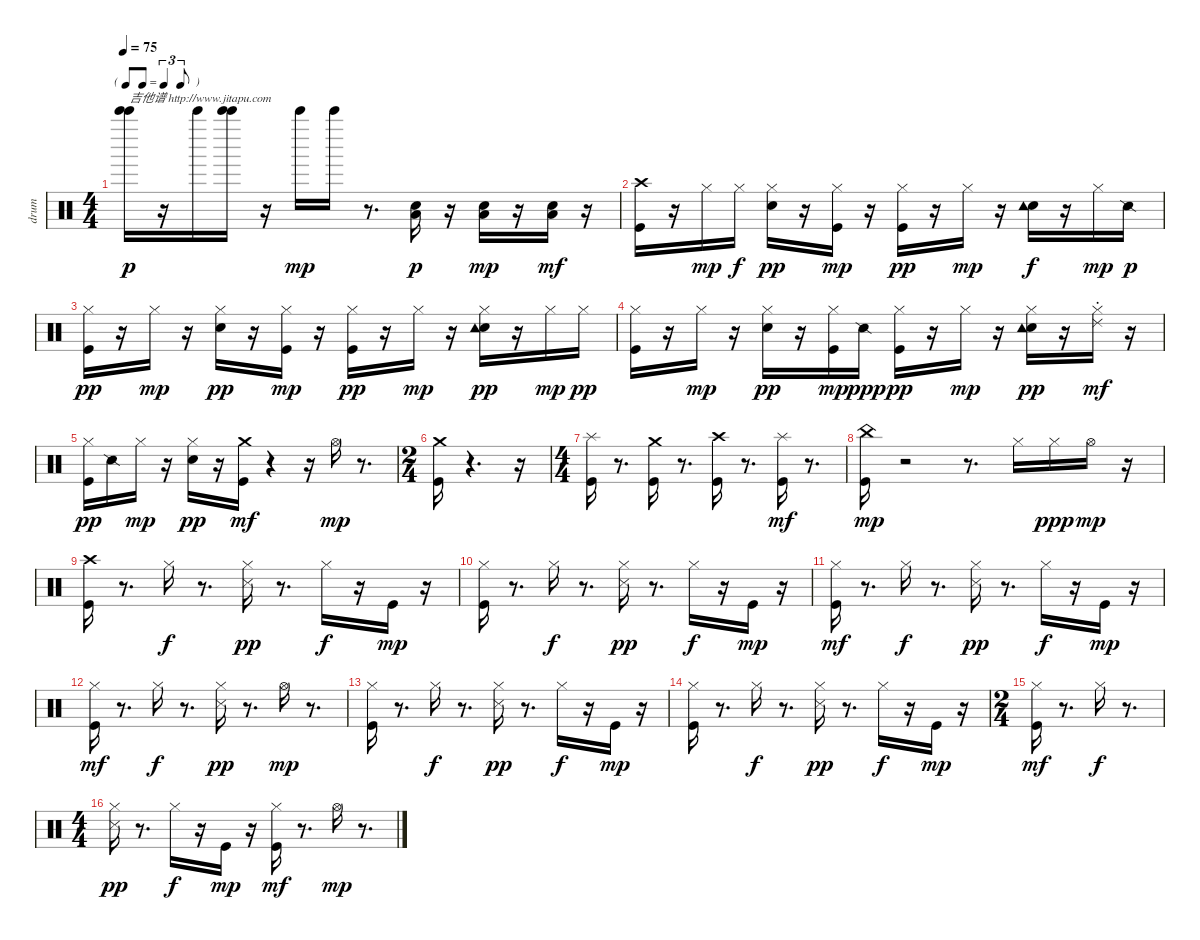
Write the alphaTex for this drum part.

\track ("drum" "drum") {instrument percussion}
\staff {score}
\articulation defaults
\ts (4 4)
\tf triplet8th
\tempo 75
\clef neutral
\ks c
("Bell Tree (hit)" "Bell Tree (hit)").16{txt "吉他谱 http://www.jitapu.com" dy p} r.16 "Bell Tree (hit)".16{balance 12} ("Bell Tree (hit)" "Bell Tree (hit)").16{balance 11} r.16 "Bell Tree (hit)".16{dy mp balance 7} "Bell Tree (hit)".16{balance 5} r.8{d} ("Snare (hit) 2" "Low Floor Tom (hit)").16{dy p balance 8} r.16 ("Snare (hit) 2" "Low Floor Tom (hit)").16{dy mp} r.16 ("Snare (hit) 2" "Low Floor Tom (hit)").16{dy mf} r.16 |
("Crash high (hit)" "Kick (hit)").16 r.16 "Hi-Hat (closed)".16{dy mp} "Hi-Hat (closed)".16{dy f} ("Hi-Hat (closed)" "Snare (hit) 2").16{dy pp} r.16 ("Hi-Hat (closed)" "Kick (hit)").16{dy mp} r.16 ("Hi-Hat (closed)" "Kick (hit)").16{dy pp} r.16 "Hi-Hat (closed)".16{dy mp} r.16 ("Snare (hit) 2" "Tambourine (hit)").16{dy f} r.16 "Hi-Hat (closed)".16{dy mp} "Snare (side stick) 2".16{dy p} |
("Hi-Hat (closed)" "Kick (hit)").16{dy pp} r.16 "Hi-Hat (closed)".16{dy mp} r.16 ("Hi-Hat (closed)" "Snare (hit) 2").16{dy pp} r.16 ("Hi-Hat (closed)" "Kick (hit)").16{dy mp} r.16 ("Hi-Hat (closed)" "Kick (hit)").16{dy pp} r.16 "Hi-Hat (closed)".16{dy mp} r.16 ("Hi-Hat (closed)" "Snare (hit) 2" "Tambourine (hit)").16{dy pp} r.16 "Hi-Hat (closed)".16{dy mp} "Hi-Hat (closed)".16{dy pp} |
("Hi-Hat (closed)" "Kick (hit)").16 r.16 "Hi-Hat (closed)".16{dy mp} r.16 ("Hi-Hat (closed)" "Snare (hit) 2").16{dy pp} r.16 ("Hi-Hat (closed)" "Kick (hit)").16{dy mp} "Snare (side stick) 2".16{dy ppp} ("Hi-Hat (closed)" "Kick (hit)").16{dy pp} r.16 "Hi-Hat (closed)".16{dy mp} r.16 ("Hi-Hat (closed)" "Snare (hit) 2" "Tambourine (hit)").16{dy pp} r.16 ("Hi-Hat (closed)" "Ride (choke) 2").16{dy mf} r.16 |
("Hi-Hat (closed)" "Kick (hit)").16{dy pp} "Snare (side stick) 2".16 "Hi-Hat (closed)".16{dy mp} r.16 ("Hi-Hat (closed)" "Snare (hit) 2").16{dy pp} r.16 ("Crash medium (hit)" "Kick (hit)").16{dy mf} r.4 r.16 "Hi-Hat (open)".16{dy mp} r.8{d} |
\ts (2 4)
("Crash medium (hit)" "Kick (hit)").16 r.4{d} r.16 |
\ts (4 4)
("Kick (hit)" "Splash (hit)").16 r.8{d} ("Crash medium (hit)" "Kick (hit)").16 r.8{d} ("Crash high (hit)" "Kick (hit)").16 r.8{d} ("Kick (hit)" "Splash (hit)").16{dy mf} r.8{d} |
("China (hit)" "Kick (hit)").16{dy mp} r.2 r.8{d} "Hi-Hat (closed)".16 "Hi-Hat (closed)".16{dy ppp} "Hi-Hat (open)".16{dy mp} r.16 |
("Crash high (hit)" "Kick (hit)").16 r.8{d} "Hi-Hat (closed)".16{dy f} r.8{d} ("Hi-Hat (closed)" "Snare (side stick) 3").16{dy pp} r.8{d} "Hi-Hat (closed)".16{dy f} r.16 "Kick (hit)".16{dy mp} r.16 |
("Hi-Hat (closed)" "Kick (hit)").16 r.8{d} "Hi-Hat (closed)".16{dy f} r.8{d} ("Hi-Hat (closed)" "Snare (side stick) 3").16{dy pp} r.8{d} "Hi-Hat (closed)".16{dy f} r.16 "Kick (hit)".16{dy mp} r.16 |
("Hi-Hat (closed)" "Kick (hit)").16{dy mf} r.8{d} "Hi-Hat (closed)".16{dy f} r.8{d} ("Hi-Hat (closed)" "Snare (side stick) 3").16{dy pp} r.8{d} "Hi-Hat (closed)".16{dy f} r.16 "Kick (hit)".16{dy mp} r.16 |
("Hi-Hat (closed)" "Kick (hit)").16{dy mf} r.8{d} "Hi-Hat (closed)".16{dy f} r.8{d} ("Hi-Hat (closed)" "Snare (side stick) 3").16{dy pp} r.8{d} "Hi-Hat (open)".16{dy mp} r.8{d} |
("Hi-Hat (closed)" "Kick (hit)").16 r.8{d} "Hi-Hat (closed)".16{dy f} r.8{d} ("Hi-Hat (closed)" "Snare (side stick) 3").16{dy pp} r.8{d} "Hi-Hat (closed)".16{dy f} r.16 "Kick (hit)".16{dy mp} r.16 |
("Hi-Hat (closed)" "Kick (hit)").16 r.8{d} "Hi-Hat (closed)".16{dy f} r.8{d} ("Hi-Hat (closed)" "Snare (side stick) 3").16{dy pp} r.8{d} "Hi-Hat (closed)".16{dy f} r.16 "Kick (hit)".16{dy mp} r.16 |
\ts (2 4)
("Hi-Hat (closed)" "Kick (hit)").16{dy mf} r.8{d} "Hi-Hat (closed)".16{dy f} r.8{d} |
\ts (4 4)
("Hi-Hat (closed)" "Snare (side stick) 3").16{dy pp} r.8{d} "Hi-Hat (closed)".16{dy f} r.16 "Kick (hit)".16{dy mp} r.16 ("Hi-Hat (closed)" "Kick (hit)").16{dy mf} r.8{d} "Hi-Hat (open)".16{dy mp} r.8{d}
